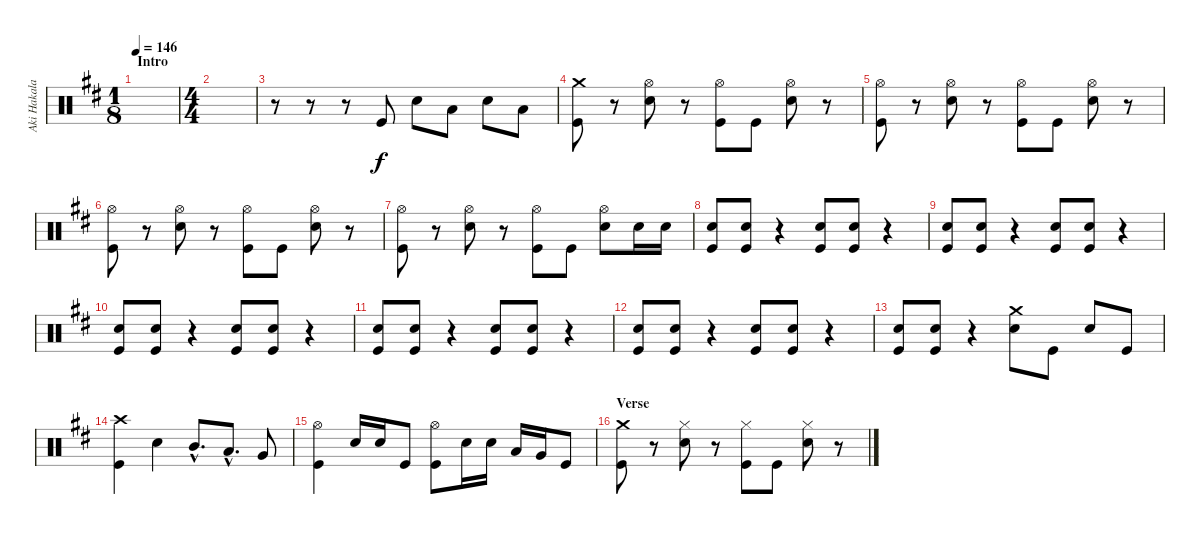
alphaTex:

\track ("Aki Hakala" "Aki Hakala") {instrument percussion}
\staff {score}
\articulation defaults
\ts (1 8)
\section ("" "Intro")
\tempo 146
\clef neutral
\ks d
|
\ts (4 4)
|
r.8 r.8 r.8 "Kick (hit)".8 "Electric Snare (hit)".8 "Low Floor Tom (hit)".8 "Electric Snare (hit)".8 "Low Floor Tom (hit)".8 |
("Crash medium (hit)" "Kick (hit)").8 r.8 ("Hi-Hat (open)" "Electric Snare (hit)").8 r.8 ("Hi-Hat (open)" "Kick (hit)").8 "Kick (hit)".8 ("Hi-Hat (open)" "Electric Snare (hit)").8 r.8 |
("Hi-Hat (open)" "Kick (hit)").8 r.8 ("Hi-Hat (open)" "Electric Snare (hit)").8 r.8 ("Hi-Hat (open)" "Kick (hit)").8 "Kick (hit)".8 ("Hi-Hat (open)" "Electric Snare (hit)").8 r.8 |
("Hi-Hat (open)" "Kick (hit)").8 r.8 ("Hi-Hat (open)" "Electric Snare (hit)").8 r.8 ("Hi-Hat (open)" "Kick (hit)").8 "Kick (hit)".8 ("Hi-Hat (open)" "Electric Snare (hit)").8 r.8 |
("Hi-Hat (open)" "Kick (hit)").8 r.8 ("Hi-Hat (open)" "Electric Snare (hit)").8 r.8 ("Hi-Hat (open)" "Kick (hit)").8 "Kick (hit)".8 ("Hi-Hat (open)" "Electric Snare (hit)").8 "Electric Snare (hit)".16 "Electric Snare (hit)".16 |
("Electric Snare (hit)" "Kick (hit)").8 ("Electric Snare (hit)" "Kick (hit)").8 r.4 ("Electric Snare (hit)" "Kick (hit)").8 ("Electric Snare (hit)" "Kick (hit)").8 r.4 |
("Electric Snare (hit)" "Kick (hit)").8 ("Electric Snare (hit)" "Kick (hit)").8 r.4 ("Electric Snare (hit)" "Kick (hit)").8 ("Electric Snare (hit)" "Kick (hit)").8 r.4 |
("Electric Snare (hit)" "Kick (hit)").8 ("Electric Snare (hit)" "Kick (hit)").8 r.4 ("Electric Snare (hit)" "Kick (hit)").8 ("Electric Snare (hit)" "Kick (hit)").8 r.4 |
("Electric Snare (hit)" "Kick (hit)").8 ("Electric Snare (hit)" "Kick (hit)").8 r.4 ("Electric Snare (hit)" "Kick (hit)").8 ("Electric Snare (hit)" "Kick (hit)").8 r.4 |
("Electric Snare (hit)" "Kick (hit)").8 ("Electric Snare (hit)" "Kick (hit)").8 r.4 ("Electric Snare (hit)" "Kick (hit)").8 ("Electric Snare (hit)" "Kick (hit)").8 r.4 |
("Electric Snare (hit)" "Kick (hit)").8 ("Electric Snare (hit)" "Kick (hit)").8 r.4 ("Crash medium (hit)" "Electric Snare (hit)").8 "Kick (hit)".8 "Electric Snare (hit)".8 "Kick (hit)".8 |
("Crash high (hit)" "Kick (hit)").4 "Electric Snare (hit)".4 "Mid Tom (hit)"{hac}.8{d} "Low Tom (hit)"{hac}.8{d} "Very Low Tom (hit)".8 |
("Hi-Hat (open)" "Kick (hit)").4 "Electric Snare (hit)".16 "Electric Snare (hit)".16 "Kick (hit)".8 ("Hi-Hat (open)" "Kick (hit)").8 "Electric Snare (hit)".16 "Electric Snare (hit)".16 "Low Tom (hit)".16 "Very Low Tom (hit)".16 "Kick (hit)".8 |
\section ("" "Verse")
("Crash medium (hit)" "Kick (hit)").8 r.8 ("Hi-Hat (closed)" "Electric Snare (hit)").8 r.8 ("Hi-Hat (closed)" "Kick (hit)").8 "Kick (hit)".8 ("Hi-Hat (closed)" "Electric Snare (hit)").8 r.8
